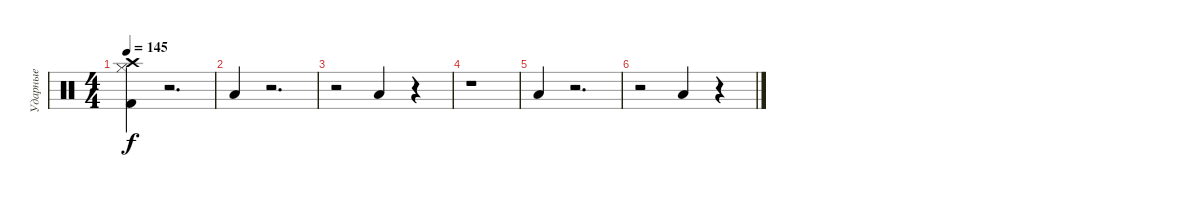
\track ("Ударные" "Ударные") {instrument percussion}
\staff {score}
\articulation defaults
\ts (4 4)
\tempo 145
\clef neutral
\ks c
("Hi-Hat (closed)" "Crash high (hit)" "Kick (hit) 2").4{dy f} r.2{d} |
"Low Floor Tom (hit)".4 r.2{d} |
r.2 "Low Floor Tom (hit)".4 r.4 |
r.1 |
"Low Floor Tom (hit)".4 r.2{d} |
r.2 "Low Floor Tom (hit)".4 r.4
